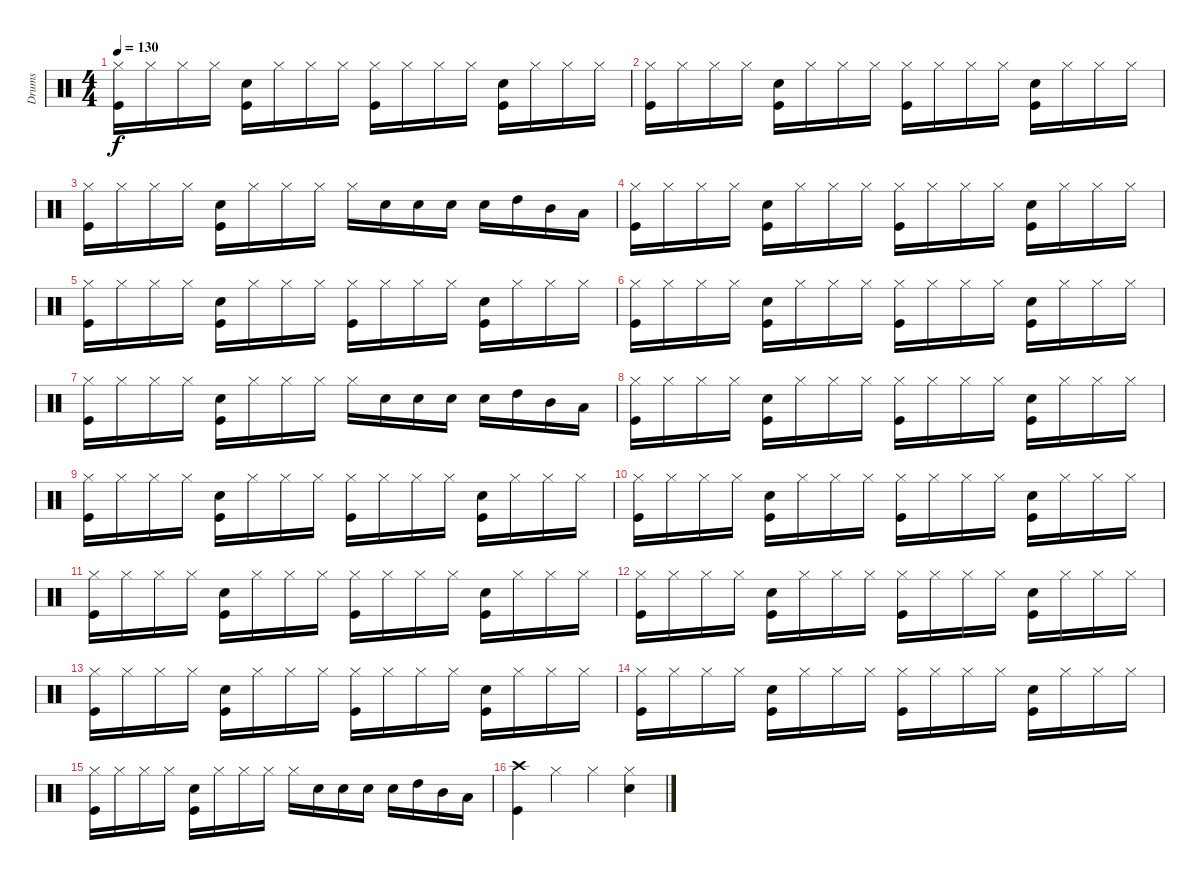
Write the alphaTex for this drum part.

\track ("Drums" "Drums") {instrument percussion}
\staff {score}
\articulation defaults
\ts (4 4)
\tempo 130
\clef neutral
\ks c
("Hi-Hat (closed)" "Kick (hit)").16{dy f} "Hi-Hat (closed)".16 "Hi-Hat (closed)".16 "Hi-Hat (closed)".16 ("Snare (hit) 2" "Kick (hit)").16 "Hi-Hat (closed)".16 "Hi-Hat (closed)".16 "Hi-Hat (closed)".16 ("Hi-Hat (closed)" "Kick (hit)").16 "Hi-Hat (closed)".16 "Hi-Hat (closed)".16 "Hi-Hat (closed)".16 ("Snare (hit) 2" "Kick (hit)").16 "Hi-Hat (closed)".16 "Hi-Hat (closed)".16 "Hi-Hat (closed)".16 |
("Hi-Hat (closed)" "Kick (hit)").16 "Hi-Hat (closed)".16 "Hi-Hat (closed)".16 "Hi-Hat (closed)".16 ("Snare (hit) 2" "Kick (hit)").16 "Hi-Hat (closed)".16 "Hi-Hat (closed)".16 "Hi-Hat (closed)".16 ("Hi-Hat (closed)" "Kick (hit)").16 "Hi-Hat (closed)".16 "Hi-Hat (closed)".16 "Hi-Hat (closed)".16 ("Snare (hit) 2" "Kick (hit)").16 "Hi-Hat (closed)".16 "Hi-Hat (closed)".16 "Hi-Hat (closed)".16 |
("Hi-Hat (closed)" "Kick (hit)").16 "Hi-Hat (closed)".16 "Hi-Hat (closed)".16 "Hi-Hat (closed)".16 ("Snare (hit) 2" "Kick (hit)").16 "Hi-Hat (closed)".16 "Hi-Hat (closed)".16 "Hi-Hat (closed)".16 "Hi-Hat (closed)".16 "Snare (hit) 2".16 "Snare (hit) 2".16 "Snare (hit) 2".16 "Snare (hit) 2".16 "High Tom (hit)".16 "Mid Tom (hit)".16 "Low Tom (hit)".16 |
("Hi-Hat (closed)" "Kick (hit)").16 "Hi-Hat (closed)".16 "Hi-Hat (closed)".16 "Hi-Hat (closed)".16 ("Snare (hit) 2" "Kick (hit)").16 "Hi-Hat (closed)".16 "Hi-Hat (closed)".16 "Hi-Hat (closed)".16 ("Hi-Hat (closed)" "Kick (hit)").16 "Hi-Hat (closed)".16 "Hi-Hat (closed)".16 "Hi-Hat (closed)".16 ("Snare (hit) 2" "Kick (hit)").16 "Hi-Hat (closed)".16 "Hi-Hat (closed)".16 "Hi-Hat (closed)".16 |
("Hi-Hat (closed)" "Kick (hit)").16 "Hi-Hat (closed)".16 "Hi-Hat (closed)".16 "Hi-Hat (closed)".16 ("Snare (hit) 2" "Kick (hit)").16 "Hi-Hat (closed)".16 "Hi-Hat (closed)".16 "Hi-Hat (closed)".16 ("Hi-Hat (closed)" "Kick (hit)").16 "Hi-Hat (closed)".16 "Hi-Hat (closed)".16 "Hi-Hat (closed)".16 ("Snare (hit) 2" "Kick (hit)").16 "Hi-Hat (closed)".16 "Hi-Hat (closed)".16 "Hi-Hat (closed)".16 |
("Hi-Hat (closed)" "Kick (hit)").16 "Hi-Hat (closed)".16 "Hi-Hat (closed)".16 "Hi-Hat (closed)".16 ("Snare (hit) 2" "Kick (hit)").16 "Hi-Hat (closed)".16 "Hi-Hat (closed)".16 "Hi-Hat (closed)".16 ("Hi-Hat (closed)" "Kick (hit)").16 "Hi-Hat (closed)".16 "Hi-Hat (closed)".16 "Hi-Hat (closed)".16 ("Snare (hit) 2" "Kick (hit)").16 "Hi-Hat (closed)".16 "Hi-Hat (closed)".16 "Hi-Hat (closed)".16 |
("Hi-Hat (closed)" "Kick (hit)").16 "Hi-Hat (closed)".16 "Hi-Hat (closed)".16 "Hi-Hat (closed)".16 ("Snare (hit) 2" "Kick (hit)").16 "Hi-Hat (closed)".16 "Hi-Hat (closed)".16 "Hi-Hat (closed)".16 "Hi-Hat (closed)".16 "Snare (hit) 2".16 "Snare (hit) 2".16 "Snare (hit) 2".16 "Snare (hit) 2".16 "High Tom (hit)".16 "Mid Tom (hit)".16 "Low Tom (hit)".16 |
("Hi-Hat (closed)" "Kick (hit)").16 "Hi-Hat (closed)".16 "Hi-Hat (closed)".16 "Hi-Hat (closed)".16 ("Snare (hit) 2" "Kick (hit)").16 "Hi-Hat (closed)".16 "Hi-Hat (closed)".16 "Hi-Hat (closed)".16 ("Hi-Hat (closed)" "Kick (hit)").16 "Hi-Hat (closed)".16 "Hi-Hat (closed)".16 "Hi-Hat (closed)".16 ("Snare (hit) 2" "Kick (hit)").16 "Hi-Hat (closed)".16 "Hi-Hat (closed)".16 "Hi-Hat (closed)".16 |
("Hi-Hat (closed)" "Kick (hit)").16 "Hi-Hat (closed)".16 "Hi-Hat (closed)".16 "Hi-Hat (closed)".16 ("Snare (hit) 2" "Kick (hit)").16 "Hi-Hat (closed)".16 "Hi-Hat (closed)".16 "Hi-Hat (closed)".16 ("Hi-Hat (closed)" "Kick (hit)").16 "Hi-Hat (closed)".16 "Hi-Hat (closed)".16 "Hi-Hat (closed)".16 ("Snare (hit) 2" "Kick (hit)").16 "Hi-Hat (closed)".16 "Hi-Hat (closed)".16 "Hi-Hat (closed)".16 |
("Hi-Hat (closed)" "Kick (hit)").16 "Hi-Hat (closed)".16 "Hi-Hat (closed)".16 "Hi-Hat (closed)".16 ("Snare (hit) 2" "Kick (hit)").16 "Hi-Hat (closed)".16 "Hi-Hat (closed)".16 "Hi-Hat (closed)".16 ("Hi-Hat (closed)" "Kick (hit)").16 "Hi-Hat (closed)".16 "Hi-Hat (closed)".16 "Hi-Hat (closed)".16 ("Snare (hit) 2" "Kick (hit)").16 "Hi-Hat (closed)".16 "Hi-Hat (closed)".16 "Hi-Hat (closed)".16 |
("Hi-Hat (closed)" "Kick (hit)").16 "Hi-Hat (closed)".16 "Hi-Hat (closed)".16 "Hi-Hat (closed)".16 ("Snare (hit) 2" "Kick (hit)").16 "Hi-Hat (closed)".16 "Hi-Hat (closed)".16 "Hi-Hat (closed)".16 ("Hi-Hat (closed)" "Kick (hit)").16 "Hi-Hat (closed)".16 "Hi-Hat (closed)".16 "Hi-Hat (closed)".16 ("Snare (hit) 2" "Kick (hit)").16 "Hi-Hat (closed)".16 "Hi-Hat (closed)".16 "Hi-Hat (closed)".16 |
("Hi-Hat (closed)" "Kick (hit)").16 "Hi-Hat (closed)".16 "Hi-Hat (closed)".16 "Hi-Hat (closed)".16 ("Snare (hit) 2" "Kick (hit)").16 "Hi-Hat (closed)".16 "Hi-Hat (closed)".16 "Hi-Hat (closed)".16 ("Hi-Hat (closed)" "Kick (hit)").16 "Hi-Hat (closed)".16 "Hi-Hat (closed)".16 "Hi-Hat (closed)".16 ("Snare (hit) 2" "Kick (hit)").16 "Hi-Hat (closed)".16 "Hi-Hat (closed)".16 "Hi-Hat (closed)".16 |
("Hi-Hat (closed)" "Kick (hit)").16 "Hi-Hat (closed)".16 "Hi-Hat (closed)".16 "Hi-Hat (closed)".16 ("Snare (hit) 2" "Kick (hit)").16 "Hi-Hat (closed)".16 "Hi-Hat (closed)".16 "Hi-Hat (closed)".16 ("Hi-Hat (closed)" "Kick (hit)").16 "Hi-Hat (closed)".16 "Hi-Hat (closed)".16 "Hi-Hat (closed)".16 ("Snare (hit) 2" "Kick (hit)").16 "Hi-Hat (closed)".16 "Hi-Hat (closed)".16 "Hi-Hat (closed)".16 |
("Hi-Hat (closed)" "Kick (hit)").16 "Hi-Hat (closed)".16 "Hi-Hat (closed)".16 "Hi-Hat (closed)".16 ("Snare (hit) 2" "Kick (hit)").16 "Hi-Hat (closed)".16 "Hi-Hat (closed)".16 "Hi-Hat (closed)".16 ("Hi-Hat (closed)" "Kick (hit)").16 "Hi-Hat (closed)".16 "Hi-Hat (closed)".16 "Hi-Hat (closed)".16 ("Snare (hit) 2" "Kick (hit)").16 "Hi-Hat (closed)".16 "Hi-Hat (closed)".16 "Hi-Hat (closed)".16 |
("Hi-Hat (closed)" "Kick (hit)").16 "Hi-Hat (closed)".16 "Hi-Hat (closed)".16 "Hi-Hat (closed)".16 ("Snare (hit) 2" "Kick (hit)").16 "Hi-Hat (closed)".16 "Hi-Hat (closed)".16 "Hi-Hat (closed)".16 "Hi-Hat (closed)".16 "Snare (hit) 2".16 "Snare (hit) 2".16 "Snare (hit) 2".16 "Snare (hit) 2".16 "High Tom (hit)".16 "Mid Tom (hit)".16 "Low Tom (hit)".16 |
("Crash high (hit)" "Kick (hit)").4 "Hi-Hat (closed)".4 "Hi-Hat (closed)".4 ("Hi-Hat (closed)" "Snare (hit) 2").4
